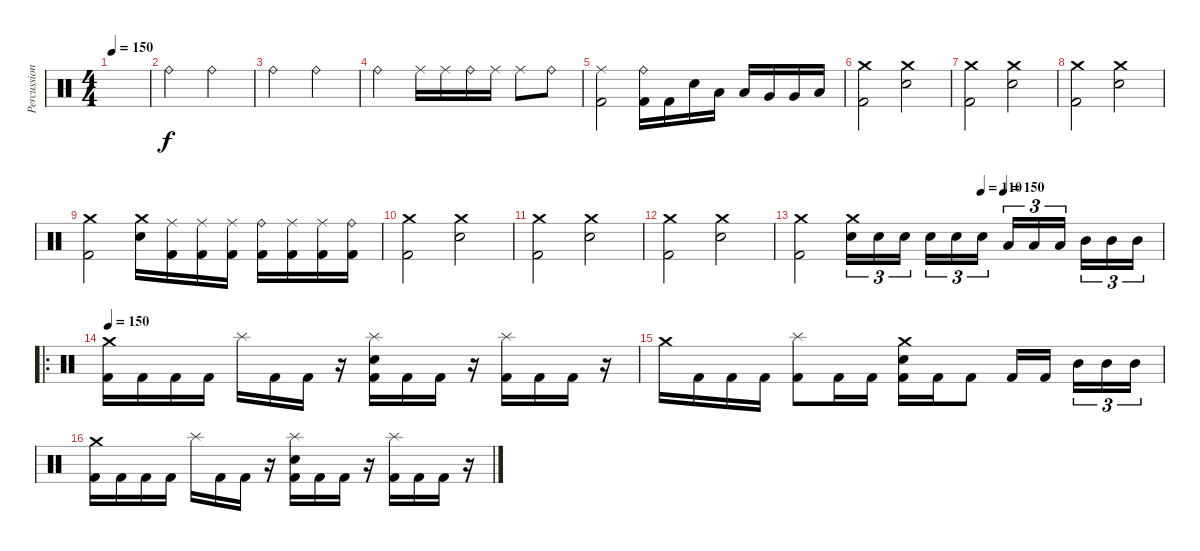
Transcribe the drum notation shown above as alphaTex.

\track ("Percussion" "Percussion") {instrument percussion}
\staff {score}
\articulation defaults
\ts (4 4)
\tempo 150
\clef neutral
\ks c
|
"Ride (bell)".2 "Ride (bell)".2 |
"Ride (bell)".2 "Ride (bell)".2 |
"Ride (bell)".2 "Ride (middle)".16 "Ride (middle)".16 "Ride (bell)".16 "Ride (middle)".16 "Ride (middle)".8 "Ride (bell)".8 |
("Ride (middle)" "Kick (hit) 2").2 ("Ride (bell)" "Kick (hit) 2").16 "Kick (hit) 2".16 "Electric Snare (hit)".16 "Low Tom (hit)".16 "Low Tom (hit)".16 "Very Low Tom (hit)".16 "Very Low Tom (hit)".16 "Low Floor Tom (hit)".16 |
("Crash medium (hit)" "Kick (hit) 2").2 ("Crash medium (hit)" "Electric Snare (hit)").2 |
("Crash medium (hit)" "Kick (hit) 2").2 ("Crash medium (hit)" "Electric Snare (hit)").2 |
("Crash medium (hit)" "Kick (hit) 2").2 ("Crash medium (hit)" "Electric Snare (hit)").2 |
("Crash medium (hit)" "Kick (hit) 2").2 ("Crash medium (hit)" "Electric Snare (hit)").16 ("Ride (middle)" "Kick (hit) 2").16 ("Ride (middle)" "Kick (hit) 2").16 ("Ride (middle)" "Kick (hit) 2").16 ("Ride (bell)" "Kick (hit) 2").16 ("Ride (middle)" "Kick (hit) 2").16 ("Ride (middle)" "Kick (hit) 2").16 ("Ride (bell)" "Kick (hit) 2").16 |
("Crash medium (hit)" "Kick (hit) 2").2 ("Crash medium (hit)" "Electric Snare (hit)").2 |
("Crash medium (hit)" "Kick (hit) 2").2 ("Crash medium (hit)" "Electric Snare (hit)").2 |
("Crash medium (hit)" "Kick (hit) 2").2 ("Crash medium (hit)" "Electric Snare (hit)").2 |
\tempo (110 0.5)
\tempo (150 0.5625)
("Crash medium (hit)" "Kick (hit) 2").2 ("Crash medium (hit)" "Electric Snare (hit)").16{tu (3 2)} "Electric Snare (hit)".16{tu (3 2)} "Electric Snare (hit)".16{tu (3 2) beam splitsecondary} "Electric Snare (hit)".16{tu (3 2)} "Electric Snare (hit)".16{tu (3 2)} "Electric Snare (hit)".16{tu (3 2)} "Low Tom (hit)".16{tu (3 2)} "Low Tom (hit)".16{tu (3 2)} "Low Tom (hit)".16{tu (3 2) beam splitsecondary} "Mid Tom (hit)".16{tu (3 2)} "Mid Tom (hit)".16{tu (3 2)} "Mid Tom (hit)".16{tu (3 2)} |
\ro
\tempo 150
("Crash medium (hit)" "Kick (hit) 2").16 "Kick (hit) 2".16 "Kick (hit) 2".16 "Kick (hit) 2".16 "Splash (hit)".16 "Kick (hit) 2".16 "Kick (hit) 2".16 r.16 ("Splash (hit)" "Electric Snare (hit)" "Kick (hit) 2").16 "Kick (hit) 2".16 "Kick (hit) 2".16 r.16 ("Splash (hit)" "Kick (hit) 2").16 "Kick (hit) 2".16 "Kick (hit) 2".16 r.16 |
"Crash medium (hit)".16 "Kick (hit) 2".16 "Kick (hit) 2".16 "Kick (hit) 2".16 ("Splash (hit)" "Kick (hit) 2").8 "Kick (hit) 2".16 "Kick (hit) 2".16 ("Crash medium (hit)" "Electric Snare (hit)" "Kick (hit) 2").16 "Kick (hit) 2".16 "Kick (hit) 2".8 "Kick (hit) 2".16 "Kick (hit) 2".16{beam splitsecondary} "Mid Tom (hit)".16{tu (3 2)} "Mid Tom (hit)".16{tu (3 2)} "Mid Tom (hit)".16{tu (3 2)} |
("Crash medium (hit)" "Kick (hit) 2").16 "Kick (hit) 2".16 "Kick (hit) 2".16 "Kick (hit) 2".16 "Splash (hit)".16 "Kick (hit) 2".16 "Kick (hit) 2".16 r.16 ("Splash (hit)" "Electric Snare (hit)" "Kick (hit) 2").16 "Kick (hit) 2".16 "Kick (hit) 2".16 r.16 ("Splash (hit)" "Kick (hit) 2").16 "Kick (hit) 2".16 "Kick (hit) 2".16 r.16
